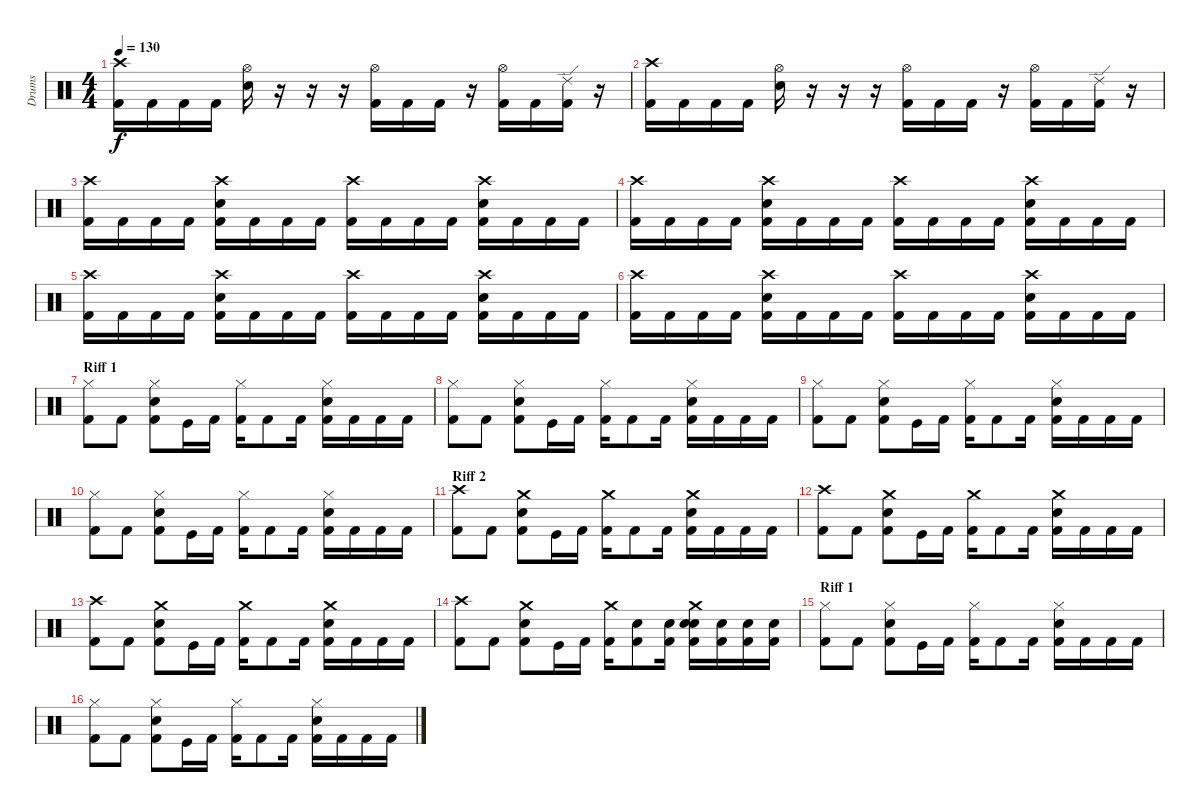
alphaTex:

\track ("Drums" "Drums") {instrument percussion}
\staff {score}
\articulation defaults
\ts (4 4)
\tempo 130
\clef neutral
\ks c
("Crash high (hit)" "Kick (hit) 2").16{dy f} "Kick (hit) 2".16 "Kick (hit) 2".16 "Kick (hit) 2".16 ("Hi-Hat (open)" "Electric Snare (hit)").16 r.16 r.16 r.16 ("Hi-Hat (open)" "Kick (hit) 2").16 "Kick (hit) 2".16 "Kick (hit) 2".16 r.16 ("Hi-Hat (open)" "Kick (hit) 2").16 "Kick (hit) 2".16 ("Ride (edge) 2" "Kick (hit) 2").16 r.16 |
("Crash high (hit)" "Kick (hit) 2").16 "Kick (hit) 2".16 "Kick (hit) 2".16 "Kick (hit) 2".16 ("Hi-Hat (open)" "Electric Snare (hit)").16 r.16 r.16 r.16 ("Hi-Hat (open)" "Kick (hit) 2").16 "Kick (hit) 2".16 "Kick (hit) 2".16 r.16 ("Hi-Hat (open)" "Kick (hit) 2").16 "Kick (hit) 2".16 ("Ride (edge) 2" "Kick (hit) 2").16 r.16 |
("Crash high (hit)" "Kick (hit) 2").16 "Kick (hit) 2".16 "Kick (hit) 2".16 "Kick (hit) 2".16 ("Crash high (hit)" "Electric Snare (hit)" "Kick (hit) 2").16 "Kick (hit) 2".16 "Kick (hit) 2".16 "Kick (hit) 2".16 ("Crash high (hit)" "Kick (hit) 2").16 "Kick (hit) 2".16 "Kick (hit) 2".16 "Kick (hit) 2".16 ("Crash high (hit)" "Electric Snare (hit)" "Kick (hit) 2").16 "Kick (hit) 2".16 "Kick (hit) 2".16 "Kick (hit) 2".16 |
("Crash high (hit)" "Kick (hit) 2").16 "Kick (hit) 2".16 "Kick (hit) 2".16 "Kick (hit) 2".16 ("Crash high (hit)" "Electric Snare (hit)" "Kick (hit) 2").16 "Kick (hit) 2".16 "Kick (hit) 2".16 "Kick (hit) 2".16 ("Crash high (hit)" "Kick (hit) 2").16 "Kick (hit) 2".16 "Kick (hit) 2".16 "Kick (hit) 2".16 ("Crash high (hit)" "Electric Snare (hit)" "Kick (hit) 2").16 "Kick (hit) 2".16 "Kick (hit) 2".16 "Kick (hit) 2".16 |
("Crash high (hit)" "Kick (hit) 2").16 "Kick (hit) 2".16 "Kick (hit) 2".16 "Kick (hit) 2".16 ("Crash high (hit)" "Electric Snare (hit)" "Kick (hit) 2").16 "Kick (hit) 2".16 "Kick (hit) 2".16 "Kick (hit) 2".16 ("Crash high (hit)" "Kick (hit) 2").16 "Kick (hit) 2".16 "Kick (hit) 2".16 "Kick (hit) 2".16 ("Crash high (hit)" "Electric Snare (hit)" "Kick (hit) 2").16 "Kick (hit) 2".16 "Kick (hit) 2".16 "Kick (hit) 2".16 |
("Crash high (hit)" "Kick (hit) 2").16 "Kick (hit) 2".16 "Kick (hit) 2".16 "Kick (hit) 2".16 ("Crash high (hit)" "Electric Snare (hit)" "Kick (hit) 2").16 "Kick (hit) 2".16 "Kick (hit) 2".16 "Kick (hit) 2".16 ("Crash high (hit)" "Kick (hit) 2").16 "Kick (hit) 2".16 "Kick (hit) 2".16 "Kick (hit) 2".16 ("Crash high (hit)" "Electric Snare (hit)" "Kick (hit) 2").16 "Kick (hit) 2".16 "Kick (hit) 2".16 "Kick (hit) 2".16 |
\section ("" "Riff 1")
("Hi-Hat (closed)" "Kick (hit) 2").8 "Kick (hit) 2".8 ("Hi-Hat (closed)" "Electric Snare (hit)" "Kick (hit) 2").8 "Kick (hit)".16 "Kick (hit) 2".16 ("Hi-Hat (closed)" "Kick (hit) 2").16 "Kick (hit) 2".8 "Kick (hit) 2".16 ("Hi-Hat (closed)" "Electric Snare (hit)" "Kick (hit) 2").16 "Kick (hit) 2".16 "Kick (hit) 2".16 "Kick (hit) 2".16 |
("Hi-Hat (closed)" "Kick (hit) 2").8 "Kick (hit) 2".8 ("Hi-Hat (closed)" "Electric Snare (hit)" "Kick (hit) 2").8 "Kick (hit)".16 "Kick (hit) 2".16 ("Hi-Hat (closed)" "Kick (hit) 2").16 "Kick (hit) 2".8 "Kick (hit) 2".16 ("Hi-Hat (closed)" "Electric Snare (hit)" "Kick (hit) 2").16 "Kick (hit) 2".16 "Kick (hit) 2".16 "Kick (hit) 2".16 |
("Hi-Hat (closed)" "Kick (hit) 2").8 "Kick (hit) 2".8 ("Hi-Hat (closed)" "Electric Snare (hit)" "Kick (hit) 2").8 "Kick (hit)".16 "Kick (hit) 2".16 ("Hi-Hat (closed)" "Kick (hit) 2").16 "Kick (hit) 2".8 "Kick (hit) 2".16 ("Hi-Hat (closed)" "Electric Snare (hit)" "Kick (hit) 2").16 "Kick (hit) 2".16 "Kick (hit) 2".16 "Kick (hit) 2".16 |
("Hi-Hat (closed)" "Kick (hit) 2").8 "Kick (hit) 2".8 ("Hi-Hat (closed)" "Electric Snare (hit)" "Kick (hit) 2").8 "Kick (hit)".16 "Kick (hit) 2".16 ("Hi-Hat (closed)" "Kick (hit) 2").16 "Kick (hit) 2".8 "Kick (hit) 2".16 ("Hi-Hat (closed)" "Electric Snare (hit)" "Kick (hit) 2").16 "Kick (hit) 2".16 "Kick (hit) 2".16 "Kick (hit) 2".16 |
\section ("" "Riff 2")
("Crash high (hit)" "Kick (hit) 2").8 "Kick (hit) 2".8 ("Crash medium (hit)" "Electric Snare (hit)" "Kick (hit) 2").8 "Kick (hit)".16 "Kick (hit) 2".16 ("Crash medium (hit)" "Kick (hit) 2").16 "Kick (hit) 2".8 "Kick (hit) 2".16 ("Crash medium (hit)" "Electric Snare (hit)" "Kick (hit) 2").16 "Kick (hit) 2".16 "Kick (hit) 2".16 "Kick (hit) 2".16 |
("Crash high (hit)" "Kick (hit) 2").8 "Kick (hit) 2".8 ("Crash medium (hit)" "Electric Snare (hit)" "Kick (hit) 2").8 "Kick (hit)".16 "Kick (hit) 2".16 ("Crash medium (hit)" "Kick (hit) 2").16 "Kick (hit) 2".8 "Kick (hit) 2".16 ("Crash medium (hit)" "Electric Snare (hit)" "Kick (hit) 2").16 "Kick (hit) 2".16 "Kick (hit) 2".16 "Kick (hit) 2".16 |
("Crash high (hit)" "Kick (hit) 2").8 "Kick (hit) 2".8 ("Crash medium (hit)" "Electric Snare (hit)" "Kick (hit) 2").8 "Kick (hit)".16 "Kick (hit) 2".16 ("Crash medium (hit)" "Kick (hit) 2").16 "Kick (hit) 2".8 "Kick (hit) 2".16 ("Crash medium (hit)" "Electric Snare (hit)" "Kick (hit) 2").16 "Kick (hit) 2".16 "Kick (hit) 2".16 "Kick (hit) 2".16 |
("Crash high (hit)" "Kick (hit) 2").8 "Kick (hit) 2".8 ("Crash medium (hit)" "Electric Snare (hit)" "Kick (hit) 2").8 "Kick (hit)".16 "Kick (hit) 2".16 ("Crash medium (hit)" "Kick (hit) 2").16 ("Electric Snare (hit)" "Kick (hit) 2").8 ("Electric Snare (hit)" "Kick (hit) 2").16 ("Crash medium (hit)" "Electric Snare (hit)" "Electric Snare (hit)" "Kick (hit) 2").16 ("Electric Snare (hit)" "Kick (hit) 2").16 ("Electric Snare (hit)" "Kick (hit) 2").16 ("Electric Snare (hit)" "Kick (hit) 2").16 |
\section ("" "Riff 1")
("Hi-Hat (closed)" "Kick (hit) 2").8 "Kick (hit) 2".8 ("Hi-Hat (closed)" "Electric Snare (hit)" "Kick (hit) 2").8 "Kick (hit)".16 "Kick (hit) 2".16 ("Hi-Hat (closed)" "Kick (hit) 2").16 "Kick (hit) 2".8 "Kick (hit) 2".16 ("Hi-Hat (closed)" "Electric Snare (hit)" "Kick (hit) 2").16 "Kick (hit) 2".16 "Kick (hit) 2".16 "Kick (hit) 2".16 |
("Hi-Hat (closed)" "Kick (hit) 2").8 "Kick (hit) 2".8 ("Hi-Hat (closed)" "Electric Snare (hit)" "Kick (hit) 2").8 "Kick (hit)".16 "Kick (hit) 2".16 ("Hi-Hat (closed)" "Kick (hit) 2").16 "Kick (hit) 2".8 "Kick (hit) 2".16 ("Hi-Hat (closed)" "Electric Snare (hit)" "Kick (hit) 2").16 "Kick (hit) 2".16 "Kick (hit) 2".16 "Kick (hit) 2".16
